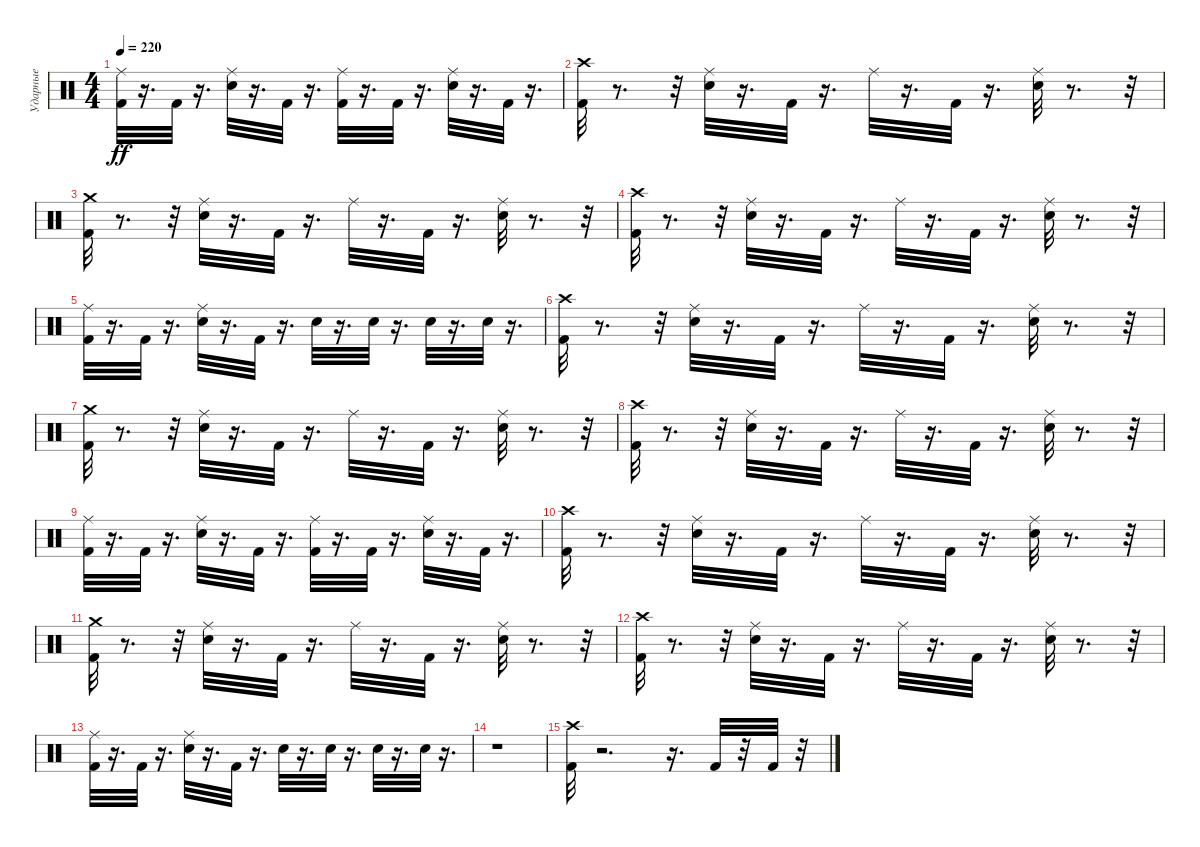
\track ("Ударные" "Ударные") {instrument percussion}
\staff {score}
\articulation defaults
\ts (4 4)
\tempo 220
\clef neutral
\ks c
("Ride (middle)" "Kick (hit) 2").32{dy ff} r.16{d} "Kick (hit) 2".32 r.16{d} ("Ride (middle)" "Snare (hit) 2").32 r.16{d} "Kick (hit) 2".32 r.16{d} ("Ride (middle)" "Kick (hit) 2").32 r.16{d} "Kick (hit) 2".32 r.16{d} ("Ride (middle)" "Snare (hit) 2").32 r.16{d} "Kick (hit) 2".32 r.16{d} |
("Kick (hit) 2" "Crash high (hit)").32 r.8{d} r.32 ("Ride (middle)" "Snare (hit) 2").32 r.16{d} "Kick (hit) 2".32 r.16{d} "Ride (middle)".32 r.16{d} "Kick (hit) 2".32 r.16{d} ("Ride (middle)" "Snare (hit) 2").32 r.8{d} r.32 |
("Crash medium (hit)" "Kick (hit) 2").32 r.8{d} r.32 ("Snare (hit) 2" "Ride (middle)").32 r.16{d} "Kick (hit) 2".32 r.16{d} "Ride (middle)".32 r.16{d} "Kick (hit) 2".32 r.16{d} ("Snare (hit) 2" "Ride (middle)").32 r.8{d} r.32 |
("Kick (hit) 2" "Crash high (hit)").32 r.8{d} r.32 ("Snare (hit) 2" "Ride (middle)").32 r.16{d} "Kick (hit) 2".32 r.16{d} "Ride (middle)".32 r.16{d} "Kick (hit) 2".32 r.16{d} ("Snare (hit) 2" "Ride (middle)").32 r.8{d} r.32 |
("Ride (middle)" "Kick (hit) 2").32 r.16{d} "Kick (hit) 2".32 r.16{d} ("Ride (middle)" "Snare (hit) 2").32 r.16{d} "Kick (hit) 2".32 r.16{d} "Snare (hit) 2".32 r.16{d} "Snare (hit) 2".32 r.16{d} "Snare (hit) 2".32 r.16{d} "Snare (hit) 2".32 r.16{d} |
("Kick (hit) 2" "Crash high (hit)").32 r.8{d} r.32 ("Ride (middle)" "Snare (hit) 2").32 r.16{d} "Kick (hit) 2".32 r.16{d} "Ride (middle)".32 r.16{d} "Kick (hit) 2".32 r.16{d} ("Ride (middle)" "Snare (hit) 2").32 r.8{d} r.32 |
("Crash medium (hit)" "Kick (hit) 2").32 r.8{d} r.32 ("Snare (hit) 2" "Ride (middle)").32 r.16{d} "Kick (hit) 2".32 r.16{d} "Ride (middle)".32 r.16{d} "Kick (hit) 2".32 r.16{d} ("Snare (hit) 2" "Ride (middle)").32 r.8{d} r.32 |
("Kick (hit) 2" "Crash high (hit)").32 r.8{d} r.32 ("Snare (hit) 2" "Ride (middle)").32 r.16{d} "Kick (hit) 2".32 r.16{d} "Ride (middle)".32 r.16{d} "Kick (hit) 2".32 r.16{d} ("Snare (hit) 2" "Ride (middle)").32 r.8{d} r.32 |
("Ride (middle)" "Kick (hit) 2").32 r.16{d} "Kick (hit) 2".32 r.16{d} ("Ride (middle)" "Snare (hit) 2").32 r.16{d} "Kick (hit) 2".32 r.16{d} ("Ride (middle)" "Kick (hit) 2").32 r.16{d} "Kick (hit) 2".32 r.16{d} ("Ride (middle)" "Snare (hit) 2").32 r.16{d} "Kick (hit) 2".32 r.16{d} |
("Kick (hit) 2" "Crash high (hit)").32 r.8{d} r.32 ("Ride (middle)" "Snare (hit) 2").32 r.16{d} "Kick (hit) 2".32 r.16{d} "Ride (middle)".32 r.16{d} "Kick (hit) 2".32 r.16{d} ("Ride (middle)" "Snare (hit) 2").32 r.8{d} r.32 |
("Crash medium (hit)" "Kick (hit) 2").32 r.8{d} r.32 ("Snare (hit) 2" "Ride (middle)").32 r.16{d} "Kick (hit) 2".32 r.16{d} "Ride (middle)".32 r.16{d} "Kick (hit) 2".32 r.16{d} ("Snare (hit) 2" "Ride (middle)").32 r.8{d} r.32 |
("Kick (hit) 2" "Crash high (hit)").32 r.8{d} r.32 ("Snare (hit) 2" "Ride (middle)").32 r.16{d} "Kick (hit) 2".32 r.16{d} "Ride (middle)".32 r.16{d} "Kick (hit) 2".32 r.16{d} ("Snare (hit) 2" "Ride (middle)").32 r.8{d} r.32 |
("Ride (middle)" "Kick (hit) 2").32 r.16{d} "Kick (hit) 2".32 r.16{d} ("Ride (middle)" "Snare (hit) 2").32 r.16{d} "Kick (hit) 2".32 r.16{d} "Snare (hit) 2".32 r.16{d} "Snare (hit) 2".32 r.16{d} "Snare (hit) 2".32 r.16{d} "Snare (hit) 2".32 r.16{d} |
r.1 |
("Crash high (hit)" "Kick (hit) 2").32 r.2{d} r.16{d} "Kick (hit) 2".32 r.32 "Kick (hit) 2".32 r.32
